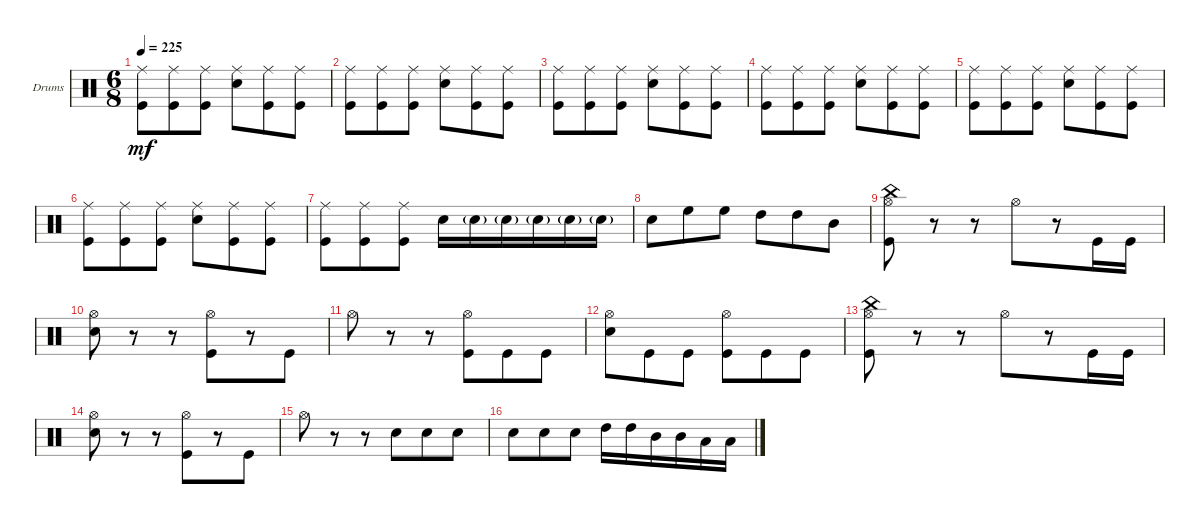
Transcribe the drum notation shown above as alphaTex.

\bracketExtendMode groupsimilarinstruments
\firstSystemTrackNameOrientation horizontal
\otherSystemsTrackNameOrientation horizontal
\track ("Drumkit" "Drums") {instrument percussion}
\staff {score}
\articulation defaults
\ts (6 8)
\tempo 225
\clef neutral
\ks c
("Kick (hit)" "Ride (middle)").8{dy mf} ("Kick (hit)" "Ride (middle)").8 ("Kick (hit)" "Ride (middle)").8 ("Snare (hit) 2" "Ride (middle)").8 ("Kick (hit)" "Ride (middle)").8 ("Kick (hit)" "Ride (middle)").8 |
("Kick (hit)" "Ride (middle)").8 ("Kick (hit)" "Ride (middle)").8 ("Kick (hit)" "Ride (middle)").8 ("Snare (hit) 2" "Ride (middle)").8 ("Kick (hit)" "Ride (middle)").8 ("Kick (hit)" "Ride (middle)").8 |
("Kick (hit)" "Ride (middle)").8 ("Kick (hit)" "Ride (middle)").8 ("Kick (hit)" "Ride (middle)").8 ("Snare (hit) 2" "Ride (middle)").8 ("Kick (hit)" "Ride (middle)").8 ("Kick (hit)" "Ride (middle)").8 |
("Kick (hit)" "Ride (middle)").8 ("Kick (hit)" "Ride (middle)").8 ("Kick (hit)" "Ride (middle)").8 ("Snare (hit) 2" "Ride (middle)").8 ("Kick (hit)" "Ride (middle)").8 ("Kick (hit)" "Ride (middle)").8 |
("Kick (hit)" "Ride (middle)").8 ("Kick (hit)" "Ride (middle)").8 ("Kick (hit)" "Ride (middle)").8 ("Snare (hit) 2" "Ride (middle)").8 ("Kick (hit)" "Ride (middle)").8 ("Kick (hit)" "Ride (middle)").8 |
("Kick (hit)" "Ride (middle)").8 ("Kick (hit)" "Ride (middle)").8 ("Kick (hit)" "Ride (middle)").8 ("Snare (hit) 2" "Ride (middle)").8 ("Kick (hit)" "Ride (middle)").8 ("Kick (hit)" "Ride (middle)").8 |
("Kick (hit)" "Ride (middle)").8 ("Kick (hit)" "Ride (middle)").8 ("Kick (hit)" "Ride (middle)").8 "Snare (hit) 2".16 "Snare (hit) 2"{g}.16 "Snare (hit) 2"{g}.16 "Snare (hit) 2"{g}.16 "Snare (hit) 2"{g}.16 "Snare (hit) 2"{g}.16 |
"Snare (hit) 2".8 "High Floor Tom (hit)".8 "High Floor Tom (hit)".8 "High Tom (hit)".8 "High Tom (hit)".8 "Mid Tom (hit)".8 |
("Kick (hit)" "Hi-Hat (open)" "China (hit)").8 r.8 r.8 "Hi-Hat (open)".8 r.8 "Kick (hit)".16 "Kick (hit)".16 |
("Snare (hit) 2" "Hi-Hat (open)").8 r.8 r.8 ("Kick (hit)" "Hi-Hat (open)").8 r.8 "Kick (hit)".8 |
"Hi-Hat (open)".8 r.8 r.8 ("Kick (hit)" "Hi-Hat (open)").8 "Kick (hit)".8 "Kick (hit)".8 |
("Snare (hit) 2" "Hi-Hat (open)").8 "Kick (hit)".8 "Kick (hit)".8 ("Kick (hit)" "Hi-Hat (open)").8 "Kick (hit)".8 "Kick (hit)".8 |
("Kick (hit)" "Hi-Hat (open)" "China (hit)").8 r.8 r.8 "Hi-Hat (open)".8 r.8 "Kick (hit)".16 "Kick (hit)".16 |
("Snare (hit) 2" "Hi-Hat (open)").8 r.8 r.8 ("Kick (hit)" "Hi-Hat (open)").8 r.8 "Kick (hit)".8 |
"Hi-Hat (open)".8 r.8 r.8 "Snare (hit) 2".8 "Snare (hit) 2".8 "Snare (hit) 2".8 |
"Snare (hit) 2".8 "Snare (hit) 2".8 "Snare (hit) 2".8 "High Tom (hit)".16 "High Tom (hit)".16 "Mid Tom (hit)".16 "Mid Tom (hit)".16 "Low Tom (hit)".16 "Low Tom (hit)".16
